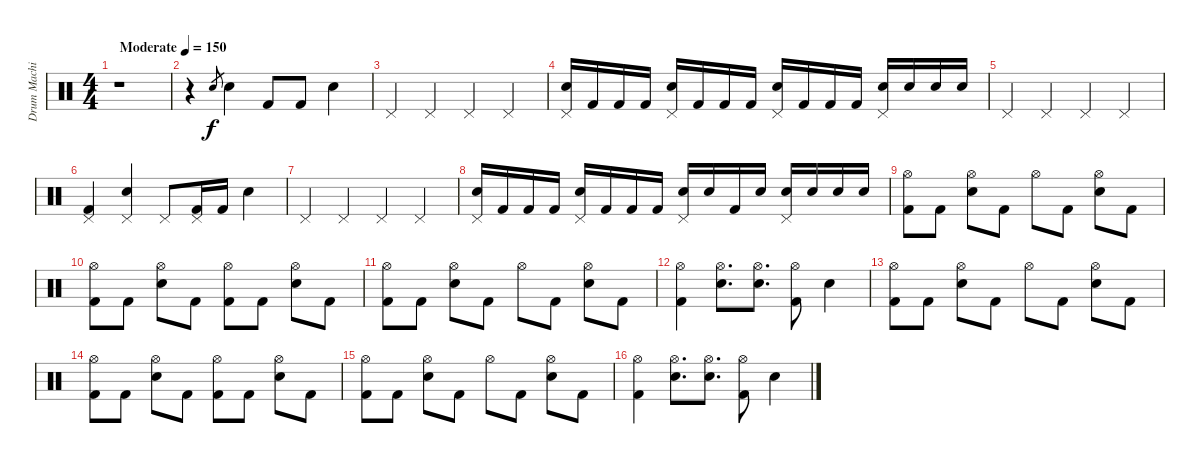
\track ("Drum Machine" "Drum Machi") {instrument percussion}
\staff {score}
\articulation defaults
\ts (4 4)
\tempo (150 "Moderate")
\clef neutral
\ks c
r.1{dy f} |
r.4 "Electric Snare (hit)".8{gr} "Electric Snare (hit)".4 "Kick (hit) 2".8 "Kick (hit) 2".8 "Electric Snare (hit)".4 |
"Pedal Hi-Hat (hit)".4 "Pedal Hi-Hat (hit)".4 "Pedal Hi-Hat (hit)".4 "Pedal Hi-Hat (hit)".4 |
("Electric Snare (hit)" "Pedal Hi-Hat (hit)").16 "Kick (hit) 2".16 "Kick (hit) 2".16 "Kick (hit) 2".16 ("Electric Snare (hit)" "Pedal Hi-Hat (hit)").16 "Kick (hit) 2".16 "Kick (hit) 2".16 "Kick (hit) 2".16 ("Electric Snare (hit)" "Pedal Hi-Hat (hit)").16 "Kick (hit) 2".16 "Kick (hit) 2".16 "Kick (hit) 2".16 ("Electric Snare (hit)" "Pedal Hi-Hat (hit)").16 "Electric Snare (hit)".16 "Electric Snare (hit)".16 "Electric Snare (hit)".16 |
"Pedal Hi-Hat (hit)".4 "Pedal Hi-Hat (hit)".4 "Pedal Hi-Hat (hit)".4 "Pedal Hi-Hat (hit)".4 |
("Kick (hit) 2" "Pedal Hi-Hat (hit)").4 ("Electric Snare (hit)" "Pedal Hi-Hat (hit)").4 "Pedal Hi-Hat (hit)".8 ("Kick (hit) 2" "Pedal Hi-Hat (hit)").16 "Kick (hit) 2".16 "Electric Snare (hit)".4 |
"Pedal Hi-Hat (hit)".4 "Pedal Hi-Hat (hit)".4 "Pedal Hi-Hat (hit)".4 "Pedal Hi-Hat (hit)".4 |
("Electric Snare (hit)" "Pedal Hi-Hat (hit)").16 "Kick (hit) 2".16 "Kick (hit) 2".16 "Kick (hit) 2".16 ("Electric Snare (hit)" "Pedal Hi-Hat (hit)").16 "Kick (hit) 2".16 "Kick (hit) 2".16 "Kick (hit) 2".16 ("Electric Snare (hit)" "Pedal Hi-Hat (hit)").16 "Electric Snare (hit)".16 "Kick (hit) 2".16 "Electric Snare (hit)".16 ("Electric Snare (hit)" "Pedal Hi-Hat (hit)").16 "Electric Snare (hit)".16 "Electric Snare (hit)".16 "Electric Snare (hit)".16 |
("Kick (hit) 2" "Hi-Hat (open)").8 "Kick (hit) 2".8 ("Electric Snare (hit)" "Hi-Hat (open)").8 "Kick (hit) 2".8 "Hi-Hat (open)".8 "Kick (hit) 2".8 ("Electric Snare (hit)" "Hi-Hat (open)").8 "Kick (hit) 2".8 |
("Kick (hit) 2" "Hi-Hat (open)").8 "Kick (hit) 2".8 ("Electric Snare (hit)" "Hi-Hat (open)").8 "Kick (hit) 2".8 ("Kick (hit) 2" "Hi-Hat (open)").8 "Kick (hit) 2".8 ("Electric Snare (hit)" "Hi-Hat (open)").8 "Kick (hit) 2".8 |
("Kick (hit) 2" "Hi-Hat (open)").8 "Kick (hit) 2".8 ("Electric Snare (hit)" "Hi-Hat (open)").8 "Kick (hit) 2".8 "Hi-Hat (open)".8 "Kick (hit) 2".8 ("Electric Snare (hit)" "Hi-Hat (open)").8 "Kick (hit) 2".8 |
("Kick (hit) 2" "Hi-Hat (open)").4 ("Electric Snare (hit)" "Hi-Hat (open)").8{d} ("Electric Snare (hit)" "Hi-Hat (open)").8{d} ("Kick (hit) 2" "Hi-Hat (open)").8 "Electric Snare (hit)".4 |
("Kick (hit) 2" "Hi-Hat (open)").8 "Kick (hit) 2".8 ("Electric Snare (hit)" "Hi-Hat (open)").8 "Kick (hit) 2".8 "Hi-Hat (open)".8 "Kick (hit) 2".8 ("Electric Snare (hit)" "Hi-Hat (open)").8 "Kick (hit) 2".8 |
("Kick (hit) 2" "Hi-Hat (open)").8 "Kick (hit) 2".8 ("Electric Snare (hit)" "Hi-Hat (open)").8 "Kick (hit) 2".8 ("Kick (hit) 2" "Hi-Hat (open)").8 "Kick (hit) 2".8 ("Electric Snare (hit)" "Hi-Hat (open)").8 "Kick (hit) 2".8 |
("Kick (hit) 2" "Hi-Hat (open)").8 "Kick (hit) 2".8 ("Electric Snare (hit)" "Hi-Hat (open)").8 "Kick (hit) 2".8 "Hi-Hat (open)".8 "Kick (hit) 2".8 ("Electric Snare (hit)" "Hi-Hat (open)").8 "Kick (hit) 2".8 |
("Kick (hit) 2" "Hi-Hat (open)").4 ("Electric Snare (hit)" "Hi-Hat (open)").8{d} ("Electric Snare (hit)" "Hi-Hat (open)").8{d} ("Kick (hit) 2" "Hi-Hat (open)").8 "Electric Snare (hit)".4
